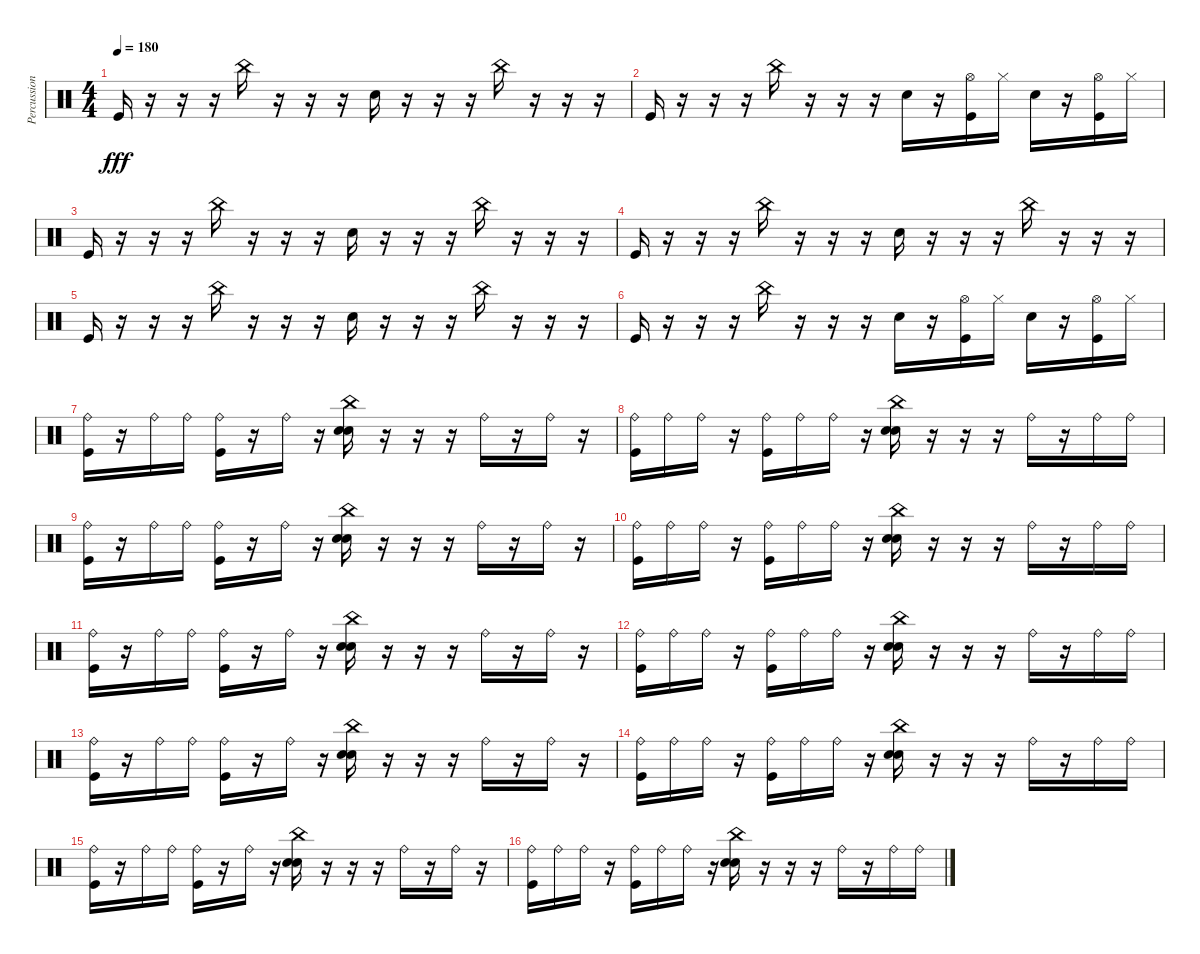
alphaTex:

\track ("Percussion" "Percussion") {instrument percussion}
\staff {score}
\articulation defaults
\ts (4 4)
\tempo 180
\clef neutral
\ks c "Kick (hit)".16{dy fff}
r.16 r.16 r.16 "China (hit)".16 r.16 r.16 r.16 "Electric Snare (hit)".16 r.16 r.16 r.16 "China (hit)".16 r.16 r.16 r.16 |
"Kick (hit)".16 r.16 r.16 r.16 "China (hit)".16 r.16 r.16 r.16 "Electric Snare (hit)".16 r.16 ("Hi-Hat (open)" "Kick (hit)").16 "Hi-Hat (closed)".16 "Electric Snare (hit)".16 r.16 ("Hi-Hat (open)" "Kick (hit)").16 "Hi-Hat (closed)".16 |
"Kick (hit)".16 r.16 r.16 r.16 "China (hit)".16 r.16 r.16 r.16 "Electric Snare (hit)".16 r.16 r.16 r.16 "China (hit)".16 r.16 r.16 r.16 |
"Kick (hit)".16 r.16 r.16 r.16 "China (hit)".16 r.16 r.16 r.16 "Electric Snare (hit)".16 r.16 r.16 r.16 "China (hit)".16 r.16 r.16 r.16 |
"Kick (hit)".16 r.16 r.16 r.16 "China (hit)".16 r.16 r.16 r.16 "Electric Snare (hit)".16 r.16 r.16 r.16 "China (hit)".16 r.16 r.16 r.16 |
"Kick (hit)".16 r.16 r.16 r.16 "China (hit)".16 r.16 r.16 r.16 "Electric Snare (hit)".16 r.16 ("Hi-Hat (open)" "Kick (hit)").16 "Hi-Hat (closed)".16 "Electric Snare (hit)".16 r.16 ("Hi-Hat (open)" "Kick (hit)").16 "Hi-Hat (closed)".16 |
("Ride (bell)" "Kick (hit)").16 r.16 "Ride (bell)".16 "Ride (bell)".16 ("Ride (bell)" "Kick (hit)").16 r.16 "Ride (bell)".16 r.16 ("China (hit)" "Snare (hit) 2" "Electric Snare (hit)").16 r.16 r.16 r.16 "Ride (bell)".16 r.16 "Ride (bell)".16 r.16 |
("Ride (bell)" "Kick (hit)").16 "Ride (bell)".16 "Ride (bell)".16 r.16 ("Ride (bell)" "Kick (hit)").16 "Ride (bell)".16 "Ride (bell)".16 r.16 ("China (hit)" "Snare (hit) 2" "Electric Snare (hit)").16 r.16 r.16 r.16 "Ride (bell)".16 r.16 "Ride (bell)".16 "Ride (bell)".16 |
("Ride (bell)" "Kick (hit)").16 r.16 "Ride (bell)".16 "Ride (bell)".16 ("Ride (bell)" "Kick (hit)").16 r.16 "Ride (bell)".16 r.16 ("China (hit)" "Snare (hit) 2" "Electric Snare (hit)").16 r.16 r.16 r.16 "Ride (bell)".16 r.16 "Ride (bell)".16 r.16 |
("Ride (bell)" "Kick (hit)").16 "Ride (bell)".16 "Ride (bell)".16 r.16 ("Ride (bell)" "Kick (hit)").16 "Ride (bell)".16 "Ride (bell)".16 r.16 ("China (hit)" "Snare (hit) 2" "Electric Snare (hit)").16 r.16 r.16 r.16 "Ride (bell)".16 r.16 "Ride (bell)".16 "Ride (bell)".16 |
("Ride (bell)" "Kick (hit)").16 r.16 "Ride (bell)".16 "Ride (bell)".16 ("Ride (bell)" "Kick (hit)").16 r.16 "Ride (bell)".16 r.16 ("China (hit)" "Snare (hit) 2" "Electric Snare (hit)").16 r.16 r.16 r.16 "Ride (bell)".16 r.16 "Ride (bell)".16 r.16 |
("Ride (bell)" "Kick (hit)").16 "Ride (bell)".16 "Ride (bell)".16 r.16 ("Ride (bell)" "Kick (hit)").16 "Ride (bell)".16 "Ride (bell)".16 r.16 ("China (hit)" "Snare (hit) 2" "Electric Snare (hit)").16 r.16 r.16 r.16 "Ride (bell)".16 r.16 "Ride (bell)".16 "Ride (bell)".16 |
("Ride (bell)" "Kick (hit)").16 r.16 "Ride (bell)".16 "Ride (bell)".16 ("Ride (bell)" "Kick (hit)").16 r.16 "Ride (bell)".16 r.16 ("China (hit)" "Snare (hit) 2" "Electric Snare (hit)").16 r.16 r.16 r.16 "Ride (bell)".16 r.16 "Ride (bell)".16 r.16 |
("Ride (bell)" "Kick (hit)").16 "Ride (bell)".16 "Ride (bell)".16 r.16 ("Ride (bell)" "Kick (hit)").16 "Ride (bell)".16 "Ride (bell)".16 r.16 ("China (hit)" "Snare (hit) 2" "Electric Snare (hit)").16 r.16 r.16 r.16 "Ride (bell)".16 r.16 "Ride (bell)".16 "Ride (bell)".16 |
("Ride (bell)" "Kick (hit)").16 r.16 "Ride (bell)".16 "Ride (bell)".16 ("Ride (bell)" "Kick (hit)").16 r.16 "Ride (bell)".16 r.16 ("China (hit)" "Snare (hit) 2" "Electric Snare (hit)").16 r.16 r.16 r.16 "Ride (bell)".16 r.16 "Ride (bell)".16 r.16 |
("Ride (bell)" "Kick (hit)").16 "Ride (bell)".16 "Ride (bell)".16 r.16 ("Ride (bell)" "Kick (hit)").16 "Ride (bell)".16 "Ride (bell)".16 r.16 ("China (hit)" "Snare (hit) 2" "Electric Snare (hit)").16 r.16 r.16 r.16 "Ride (bell)".16 r.16 "Ride (bell)".16 "Ride (bell)".16
